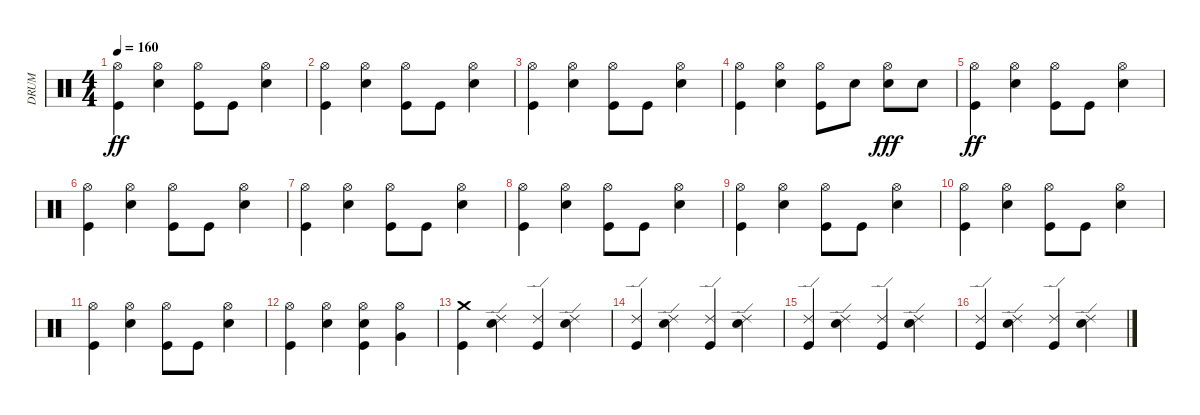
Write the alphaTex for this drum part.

\track ("DRUM" "DRUM") {instrument percussion}
\staff {score}
\articulation defaults
\ts (4 4)
\tempo 160
\clef neutral
\ks c
("Hi-Hat (open)" "Kick (hit)").4{dy ff} ("Hi-Hat (open)" "Snare (hit) 2").4 ("Hi-Hat (open)" "Kick (hit)").8 "Kick (hit)".8 ("Hi-Hat (open)" "Snare (hit) 2").4 |
("Hi-Hat (open)" "Kick (hit)").4 ("Hi-Hat (open)" "Snare (hit) 2").4 ("Hi-Hat (open)" "Kick (hit)").8 "Kick (hit)".8 ("Hi-Hat (open)" "Snare (hit) 2").4 |
("Hi-Hat (open)" "Kick (hit)").4 ("Hi-Hat (open)" "Snare (hit) 2").4 ("Hi-Hat (open)" "Kick (hit)").8 "Kick (hit)".8 ("Hi-Hat (open)" "Snare (hit) 2").4 |
("Hi-Hat (open)" "Kick (hit)").4 ("Hi-Hat (open)" "Snare (hit) 2").4 ("Hi-Hat (open)" "Kick (hit)").8 "Snare (hit) 2".8 ("Hi-Hat (open)" "Snare (hit) 2").8{dy fff} "Snare (hit) 2".8 |
("Hi-Hat (open)" "Kick (hit)").4{dy ff} ("Hi-Hat (open)" "Snare (hit) 2").4 ("Hi-Hat (open)" "Kick (hit)").8 "Kick (hit)".8 ("Hi-Hat (open)" "Snare (hit) 2").4 |
("Hi-Hat (open)" "Kick (hit)").4 ("Hi-Hat (open)" "Snare (hit) 2").4 ("Hi-Hat (open)" "Kick (hit)").8 "Kick (hit)".8 ("Hi-Hat (open)" "Snare (hit) 2").4 |
("Hi-Hat (open)" "Kick (hit)").4 ("Hi-Hat (open)" "Snare (hit) 2").4 ("Hi-Hat (open)" "Kick (hit)").8 "Kick (hit)".8 ("Hi-Hat (open)" "Snare (hit) 2").4 |
("Hi-Hat (open)" "Kick (hit)").4 ("Hi-Hat (open)" "Snare (hit) 2").4 ("Hi-Hat (open)" "Kick (hit)").8 "Kick (hit)".8 ("Hi-Hat (open)" "Snare (hit) 2").4 |
("Hi-Hat (open)" "Kick (hit)").4 ("Hi-Hat (open)" "Snare (hit) 2").4 ("Hi-Hat (open)" "Kick (hit)").8 "Kick (hit)".8 ("Hi-Hat (open)" "Snare (hit) 2").4 |
("Hi-Hat (open)" "Kick (hit)").4 ("Hi-Hat (open)" "Snare (hit) 2").4 ("Hi-Hat (open)" "Kick (hit)").8 "Kick (hit)".8 ("Hi-Hat (open)" "Snare (hit) 2").4 |
("Hi-Hat (open)" "Kick (hit)").4 ("Hi-Hat (open)" "Snare (hit) 2").4 ("Hi-Hat (open)" "Kick (hit)").8 "Kick (hit)".8 ("Hi-Hat (open)" "Snare (hit) 2").4 |
("Hi-Hat (open)" "Kick (hit)").4 ("Hi-Hat (open)" "Snare (hit) 2").4 ("Hi-Hat (open)" "Snare (hit) 2" "Kick (hit)").4 ("Hi-Hat (open)" "Very Low Tom (hit)").4 |
("Crash medium (hit)" "Kick (hit)").4 ("Ride (edge) 2" "Snare (hit) 2").4 ("Ride (edge) 2" "Kick (hit)").4 ("Ride (edge) 2" "Snare (hit) 2").4 |
("Ride (edge) 2" "Kick (hit)").4 ("Ride (edge) 2" "Snare (hit) 2").4 ("Ride (edge) 2" "Kick (hit)").4 ("Ride (edge) 2" "Snare (hit) 2").4 |
("Ride (edge) 2" "Kick (hit)").4 ("Ride (edge) 2" "Snare (hit) 2").4 ("Ride (edge) 2" "Kick (hit)").4 ("Ride (edge) 2" "Snare (hit) 2").4 |
("Ride (edge) 2" "Kick (hit)").4 ("Ride (edge) 2" "Snare (hit) 2").4 ("Ride (edge) 2" "Kick (hit)").4 ("Ride (edge) 2" "Snare (hit) 2").4
